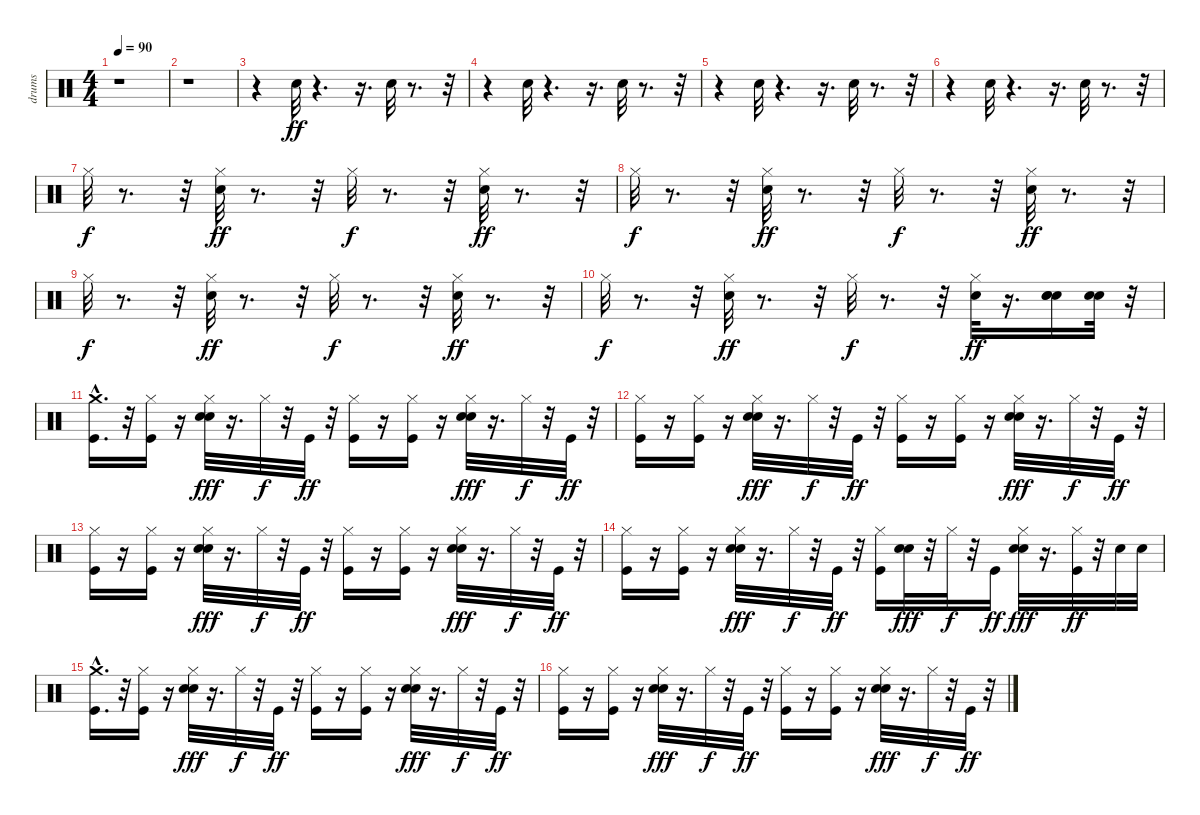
\track ("drums" "drums") {instrument percussion}
\staff {score}
\articulation defaults
\ts (4 4)
\tempo 90
\clef neutral
\ks c
r.1{dy ff} |
r.1 |
r.4 "Hand Clap (hit)".32 r.4{d} r.16{d} "Hand Clap (hit)".32 r.8{d} r.32 |
r.4 "Hand Clap (hit)".32 r.4{d} r.16{d} "Hand Clap (hit)".32 r.8{d} r.32 |
r.4 "Hand Clap (hit)".32 r.4{d} r.16{d} "Hand Clap (hit)".32 r.8{d} r.32 |
r.4 "Hand Clap (hit)".32 r.4{d} r.16{d} "Hand Clap (hit)".32 r.8{d} r.32 |
"Hi-Hat (closed)".32{dy f} r.8{d} r.32 ("Hi-Hat (closed)" "Hand Clap (hit)").32{dy ff} r.8{d} r.32 "Hi-Hat (closed)".32{dy f} r.8{d} r.32 ("Hi-Hat (closed)" "Hand Clap (hit)").32{dy ff} r.8{d} r.32 |
"Hi-Hat (closed)".32{dy f} r.8{d} r.32 ("Hi-Hat (closed)" "Hand Clap (hit)").32{dy ff} r.8{d} r.32 "Hi-Hat (closed)".32{dy f} r.8{d} r.32 ("Hi-Hat (closed)" "Hand Clap (hit)").32{dy ff} r.8{d} r.32 |
"Hi-Hat (closed)".32{dy f} r.8{d} r.32 ("Hi-Hat (closed)" "Hand Clap (hit)").32{dy ff} r.8{d} r.32 "Hi-Hat (closed)".32{dy f} r.8{d} r.32 ("Hi-Hat (closed)" "Hand Clap (hit)").32{dy ff} r.8{d} r.32 |
"Hi-Hat (closed)".32{dy f} r.8{d} r.32 ("Hi-Hat (closed)" "Hand Clap (hit)").32{dy ff} r.8{d} r.32 "Hi-Hat (closed)".32{dy f} r.8{d} r.32 ("Hi-Hat (closed)" "Hand Clap (hit)").32{dy ff} r.16{d} ("Electric Snare (hit)" "Electric Snare (hit)" "Hand Clap (hit)").16 ("Electric Snare (hit)" "Hand Clap (hit)").32 r.32 |
("Crash medium (hit)"{hac} "Kick (hit)").16{d} r.32 ("Hi-Hat (closed)" "Kick (hit)").16 r.16 ("Hi-Hat (closed)" "Electric Snare (hit)" "Hand Clap (hit)").32{dy fff} r.16{d} "Hi-Hat (closed)".32{dy f} r.32 "Kick (hit)".32{dy ff} r.32 ("Hi-Hat (closed)" "Kick (hit)").16 r.16 ("Hi-Hat (closed)" "Kick (hit)").16 r.16 ("Hi-Hat (closed)" "Electric Snare (hit)" "Hand Clap (hit)").32{dy fff} r.16{d} "Hi-Hat (closed)".32{dy f} r.32 "Kick (hit)".32{dy ff} r.32 |
("Kick (hit)" "Hi-Hat (closed)").16 r.16 ("Hi-Hat (closed)" "Kick (hit)").16 r.16 ("Hi-Hat (closed)" "Electric Snare (hit)" "Hand Clap (hit)").32{dy fff} r.16{d} "Hi-Hat (closed)".32{dy f} r.32 "Kick (hit)".32{dy ff} r.32 ("Hi-Hat (closed)" "Kick (hit)").16 r.16 ("Hi-Hat (closed)" "Kick (hit)").16 r.16 ("Hi-Hat (closed)" "Electric Snare (hit)" "Hand Clap (hit)").32{dy fff} r.16{d} "Hi-Hat (closed)".32{dy f} r.32 "Kick (hit)".32{dy ff} r.32 |
("Kick (hit)" "Hi-Hat (closed)").16 r.16 ("Hi-Hat (closed)" "Kick (hit)").16 r.16 ("Hi-Hat (closed)" "Electric Snare (hit)" "Hand Clap (hit)").32{dy fff} r.16{d} "Hi-Hat (closed)".32{dy f} r.32 "Kick (hit)".32{dy ff} r.32 ("Hi-Hat (closed)" "Kick (hit)").16 r.16 ("Hi-Hat (closed)" "Kick (hit)").16 r.16 ("Hi-Hat (closed)" "Electric Snare (hit)" "Hand Clap (hit)").32{dy fff} r.16{d} "Hi-Hat (closed)".32{dy f} r.32 "Kick (hit)".32{dy ff} r.32 |
("Kick (hit)" "Hi-Hat (closed)").16 r.16 ("Hi-Hat (closed)" "Kick (hit)").16 r.16 ("Hi-Hat (closed)" "Electric Snare (hit)" "Hand Clap (hit)").32{dy fff} r.16{d} "Hi-Hat (closed)".32{dy f} r.32 "Kick (hit)".32{dy ff} r.32 ("Hi-Hat (closed)" "Kick (hit)").16 ("Electric Snare (hit)" "Hand Clap (hit)").32{dy fff} r.32 "Hi-Hat (closed)".32{dy f} r.32 "Kick (hit)".16{dy ff} ("Hi-Hat (closed)" "Electric Snare (hit)" "Hand Clap (hit)").32{dy fff} r.16{d} ("Hi-Hat (closed)" "Kick (hit)").32{dy ff} r.32 "Hand Clap (hit)".32 "Hand Clap (hit)".32 |
("Crash medium (hit)"{hac} "Kick (hit)").16{d} r.32 ("Hi-Hat (closed)" "Kick (hit)").16 r.16 ("Hi-Hat (closed)" "Electric Snare (hit)" "Hand Clap (hit)").32{dy fff} r.16{d} "Hi-Hat (closed)".32{dy f} r.32 "Kick (hit)".32{dy ff} r.32 ("Hi-Hat (closed)" "Kick (hit)").16 r.16 ("Hi-Hat (closed)" "Kick (hit)").16 r.16 ("Hi-Hat (closed)" "Electric Snare (hit)" "Hand Clap (hit)").32{dy fff} r.16{d} "Hi-Hat (closed)".32{dy f} r.32 "Kick (hit)".32{dy ff} r.32 |
("Kick (hit)" "Hi-Hat (closed)").16 r.16 ("Hi-Hat (closed)" "Kick (hit)").16 r.16 ("Hi-Hat (closed)" "Electric Snare (hit)" "Hand Clap (hit)").32{dy fff} r.16{d} "Hi-Hat (closed)".32{dy f} r.32 "Kick (hit)".32{dy ff} r.32 ("Hi-Hat (closed)" "Kick (hit)").16 r.16 ("Hi-Hat (closed)" "Kick (hit)").16 r.16 ("Hi-Hat (closed)" "Electric Snare (hit)" "Hand Clap (hit)").32{dy fff} r.16{d} "Hi-Hat (closed)".32{dy f} r.32 "Kick (hit)".32{dy ff} r.32
